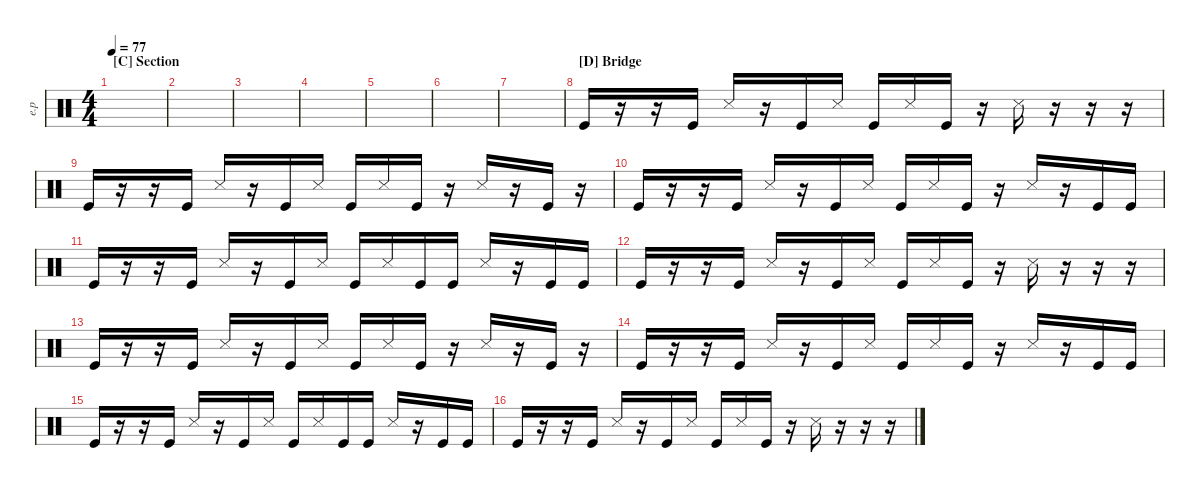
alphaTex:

\defaultSystemsLayout 4
\hideDynamics
\bracketExtendMode nobrackets
\otherSystemsTrackNameOrientation horizontal
\track ("Electric Percussion" "e.p") {instrument percussion}
\staff {score}
\articulation defaults
\ts (4 4)
\section ("C" "Section")
\tempo 77
\clef neutral
\ks c
|
|
|
|
|
|
|
\section ("D" "Bridge")
"Kick (hit)".16 r.16 r.16 "Kick (hit)".16 "Snare (side stick) 3".16 r.16 "Kick (hit)".16 "Snare (side stick) 3".16 "Kick (hit)".16 "Snare (side stick) 3".16 "Kick (hit)".16 r.16 "Snare (side stick) 3".16 r.16 r.16 r.16 |
"Kick (hit)".16 r.16 r.16 "Kick (hit)".16 "Snare (side stick) 3".16 r.16 "Kick (hit)".16 "Snare (side stick) 3".16 "Kick (hit)".16 "Snare (side stick) 3".16 "Kick (hit)".16 r.16 "Snare (side stick) 3".16 r.16 "Kick (hit)".16 r.16 |
"Kick (hit)".16 r.16 r.16 "Kick (hit)".16 "Snare (side stick) 3".16 r.16 "Kick (hit)".16 "Snare (side stick) 3".16 "Kick (hit)".16 "Snare (side stick) 3".16 "Kick (hit)".16 r.16 "Snare (side stick) 3".16 r.16 "Kick (hit)".16 "Kick (hit)".16 |
"Kick (hit)".16 r.16 r.16 "Kick (hit)".16 "Snare (side stick) 3".16 r.16 "Kick (hit)".16 "Snare (side stick) 3".16 "Kick (hit)".16 "Snare (side stick) 3".16 "Kick (hit)".16 "Kick (hit)".16 "Snare (side stick) 3".16 r.16 "Kick (hit)".16 "Kick (hit)".16 |
"Kick (hit)".16 r.16 r.16 "Kick (hit)".16 "Snare (side stick) 3".16 r.16 "Kick (hit)".16 "Snare (side stick) 3".16 "Kick (hit)".16 "Snare (side stick) 3".16 "Kick (hit)".16 r.16 "Snare (side stick) 3".16 r.16 r.16 r.16 |
"Kick (hit)".16 r.16 r.16 "Kick (hit)".16 "Snare (side stick) 3".16 r.16 "Kick (hit)".16 "Snare (side stick) 3".16 "Kick (hit)".16 "Snare (side stick) 3".16 "Kick (hit)".16 r.16 "Snare (side stick) 3".16 r.16 "Kick (hit)".16 r.16 |
"Kick (hit)".16 r.16 r.16 "Kick (hit)".16 "Snare (side stick) 3".16 r.16 "Kick (hit)".16 "Snare (side stick) 3".16 "Kick (hit)".16 "Snare (side stick) 3".16 "Kick (hit)".16 r.16 "Snare (side stick) 3".16 r.16 "Kick (hit)".16 "Kick (hit)".16 |
"Kick (hit)".16 r.16 r.16 "Kick (hit)".16 "Snare (side stick) 3".16 r.16 "Kick (hit)".16 "Snare (side stick) 3".16 "Kick (hit)".16 "Snare (side stick) 3".16 "Kick (hit)".16 "Kick (hit)".16 "Snare (side stick) 3".16 r.16 "Kick (hit)".16 "Kick (hit)".16 |
"Kick (hit)".16 r.16 r.16 "Kick (hit)".16 "Snare (side stick) 3".16 r.16 "Kick (hit)".16 "Snare (side stick) 3".16 "Kick (hit)".16 "Snare (side stick) 3".16 "Kick (hit)".16 r.16 "Snare (side stick) 3".16 r.16 r.16 r.16
